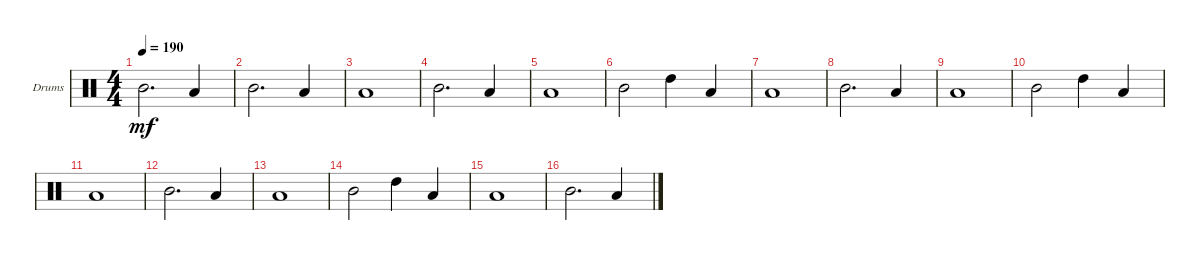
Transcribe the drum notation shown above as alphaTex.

\defaultSystemsLayout 4
\bracketExtendMode groupsimilarinstruments
\firstSystemTrackNameOrientation horizontal
\otherSystemsTrackNameOrientation horizontal
\track ("Drumkit" "Drums") {instrument percussion}
\staff {score}
\articulation defaults
\ts (4 4)
\tempo 190
\clef neutral
\ks c "Mid Tom (hit)".2{d dy mf} "Low Tom (hit)".4
|
"Mid Tom (hit)".2{d} "Low Tom (hit)".4 |
"Low Tom (hit)".1 |
"Mid Tom (hit)".2{d} "Low Tom (hit)".4 |
"Low Tom (hit)".1 |
"Mid Tom (hit)".2 "High Tom (hit)".4 "Low Tom (hit)".4 |
"Low Tom (hit)".1 |
"Mid Tom (hit)".2{d} "Low Tom (hit)".4 |
"Low Tom (hit)".1 |
"Mid Tom (hit)".2 "High Tom (hit)".4 "Low Tom (hit)".4 |
"Low Tom (hit)".1 |
"Mid Tom (hit)".2{d} "Low Tom (hit)".4 |
"Low Tom (hit)".1 |
"Mid Tom (hit)".2 "High Tom (hit)".4 "Low Tom (hit)".4 |
"Low Tom (hit)".1 |
"Mid Tom (hit)".2{d} "Low Tom (hit)".4
